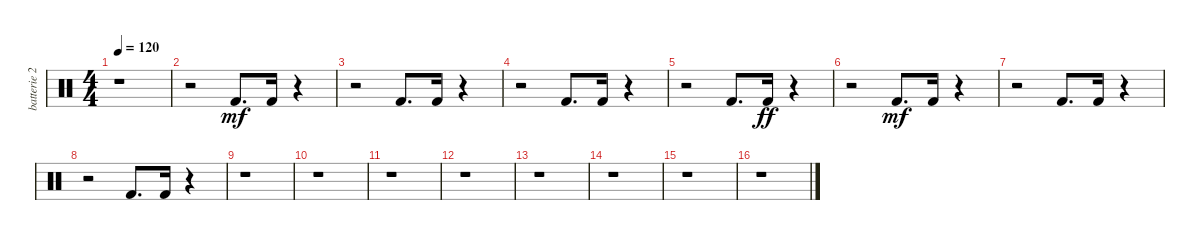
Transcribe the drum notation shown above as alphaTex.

\track ("batterie 2" "batterie 2") {instrument percussion}
\staff {score}
\articulation defaults
\ts (4 4)
\tempo 120
\clef neutral
\ks c
r.1{dy mf} |
r.2 "Kick (hit) 2".8{d} "Kick (hit) 2".16 r.4 |
r.2 "Kick (hit) 2".8{d} "Kick (hit) 2".16 r.4 |
r.2 "Kick (hit) 2".8{d} "Kick (hit) 2".16 r.4 |
r.2 "Kick (hit) 2".8{d} "Kick (hit) 2".16{dy ff} r.4 |
r.2 "Kick (hit) 2".8{d dy mf} "Kick (hit) 2".16 r.4 |
r.2 "Kick (hit) 2".8{d} "Kick (hit) 2".16 r.4 |
r.2 "Kick (hit) 2".8{d} "Kick (hit) 2".16 r.4 |
r.1 |
r.1 |
r.1 |
r.1 |
r.1 |
r.1 |
r.1 |
r.1
